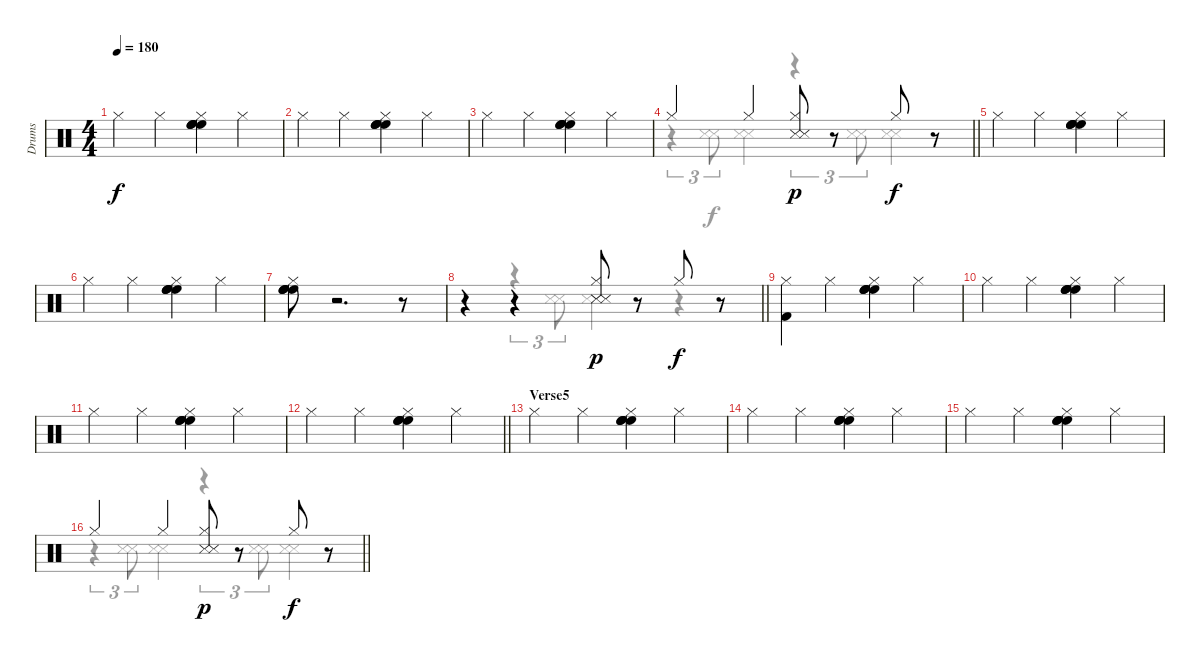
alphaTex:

\track ("Drums" "Drums") {instrument percussion}
\staff {score}
\articulation defaults
\voice
\ts (4 4)
\tempo 180
\clef neutral
\ks c "Hi-Hat (closed)".4{dy f} "Hi-Hat (closed)".4
("High Floor Tom (hit)" "High Floor Tom (hit)" "High Floor Tom (hit)" "High Floor Tom (hit)" "Hi-Hat (closed)").4 "Hi-Hat (closed)".4 |
"Hi-Hat (closed)".4 "Hi-Hat (closed)".4 ("High Floor Tom (hit)" "High Floor Tom (hit)" "High Floor Tom (hit)" "High Floor Tom (hit)" "Hi-Hat (closed)").4 "Hi-Hat (closed)".4 |
"Hi-Hat (closed)".4 "Hi-Hat (closed)".4 ("High Floor Tom (hit)" "High Floor Tom (hit)" "High Floor Tom (hit)" "High Floor Tom (hit)" "Hi-Hat (closed)").4 "Hi-Hat (closed)".4 |
\barLineRight lightlight "Hi-Hat (closed)".4 "Hi-Hat (closed)".4
("Snare (side stick) 3" "Snare (side stick) 3" "Hi-Hat (closed)").8{dy p} r.8 "Hi-Hat (closed)".8{dy f} r.8 |
"Hi-Hat (closed)".4 "Hi-Hat (closed)".4 ("High Floor Tom (hit)" "High Floor Tom (hit)" "High Floor Tom (hit)" "High Floor Tom (hit)" "Hi-Hat (closed)").4 "Hi-Hat (closed)".4 |
"Hi-Hat (closed)".4 "Hi-Hat (closed)".4 ("High Floor Tom (hit)" "High Floor Tom (hit)" "High Floor Tom (hit)" "High Floor Tom (hit)" "Hi-Hat (closed)").4 "Hi-Hat (closed)".4 |
("High Floor Tom (hit)" "High Floor Tom (hit)" "High Floor Tom (hit)" "High Floor Tom (hit)" "Hi-Hat (closed)").8 r.2{d} r.8 |
\barLineRight lightlight
r.4 r.4 ("Snare (side stick) 3" "Snare (side stick) 3" "Hi-Hat (closed)").8{dy p} r.8 "Hi-Hat (closed)".8{dy f} r.8 |
("Kick (hit) 2" "Hi-Hat (closed)").4 "Hi-Hat (closed)".4 ("High Floor Tom (hit)" "High Floor Tom (hit)" "High Floor Tom (hit)" "High Floor Tom (hit)" "Hi-Hat (closed)").4 "Hi-Hat (closed)".4 |
"Hi-Hat (closed)".4 "Hi-Hat (closed)".4 ("High Floor Tom (hit)" "High Floor Tom (hit)" "High Floor Tom (hit)" "High Floor Tom (hit)" "Hi-Hat (closed)").4 "Hi-Hat (closed)".4 |
"Hi-Hat (closed)".4 "Hi-Hat (closed)".4 ("High Floor Tom (hit)" "High Floor Tom (hit)" "High Floor Tom (hit)" "High Floor Tom (hit)" "Hi-Hat (closed)").4 "Hi-Hat (closed)".4 |
\barLineRight lightlight "Hi-Hat (closed)".4 "Hi-Hat (closed)".4
("High Floor Tom (hit)" "High Floor Tom (hit)" "High Floor Tom (hit)" "High Floor Tom (hit)" "Hi-Hat (closed)").4 "Hi-Hat (closed)".4 |
\section ("" "Verse5")
"Hi-Hat (closed)".4 "Hi-Hat (closed)".4 ("High Floor Tom (hit)" "High Floor Tom (hit)" "High Floor Tom (hit)" "High Floor Tom (hit)" "Hi-Hat (closed)").4 "Hi-Hat (closed)".4 |
"Hi-Hat (closed)".4 "Hi-Hat (closed)".4 ("High Floor Tom (hit)" "High Floor Tom (hit)" "High Floor Tom (hit)" "High Floor Tom (hit)" "Hi-Hat (closed)").4 "Hi-Hat (closed)".4 |
"Hi-Hat (closed)".4 "Hi-Hat (closed)".4 ("High Floor Tom (hit)" "High Floor Tom (hit)" "High Floor Tom (hit)" "High Floor Tom (hit)" "Hi-Hat (closed)").4 "Hi-Hat (closed)".4 |
\barLineRight lightlight "Hi-Hat (closed)".4 "Hi-Hat (closed)".4
("Snare (side stick) 3" "Snare (side stick) 3" "Hi-Hat (closed)").8{dy p} r.8 "Hi-Hat (closed)".8{dy f} r.8
\voice
\clef neutral
\ottava regular
\simile none
\ks c
|
|
|
\barLineRight lightlight
r.4{tu (3 2)} ("Snare (side stick) 3" "Snare (side stick) 3").8{tu (3 2)} ("Snare (side stick) 3" "Snare (side stick) 3").4 r.4{tu (3 2)} ("Snare (side stick) 3" "Snare (side stick) 3").8{tu (3 2)} ("Snare (side stick) 3" "Snare (side stick) 3").4 |
|
|
|
\barLineRight lightlight
r.4 r.4{tu (3 2)} ("Snare (side stick) 3" "Snare (side stick) 3").8{tu (3 2)} ("Snare (side stick) 3" "Snare (side stick) 3").4 r.4 |
|
|
|
\barLineRight lightlight
|
|
|
|
\barLineRight lightlight
r.4{tu (3 2)} ("Snare (side stick) 3" "Snare (side stick) 3").8{tu (3 2)} ("Snare (side stick) 3" "Snare (side stick) 3").4 r.4{tu (3 2)} ("Snare (side stick) 3" "Snare (side stick) 3").8{tu (3 2)} ("Snare (side stick) 3" "Snare (side stick) 3").4
